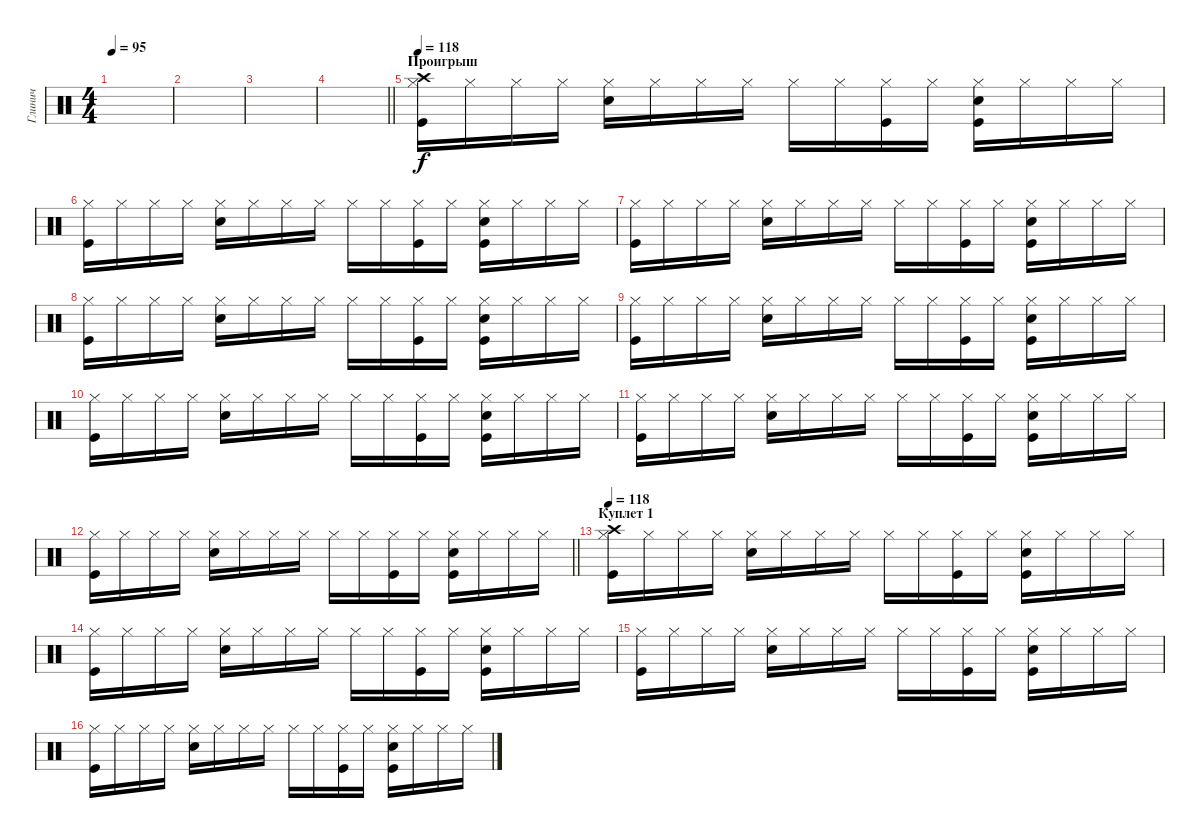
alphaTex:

\track ("Глинич" "Глинич") {instrument percussion}
\staff {score}
\articulation defaults
\ts (4 4)
\tempo 95
\clef neutral
\ks c
|
|
|
\barLineRight lightlight
|
\section ("" "Проигрыш")
\tempo 118
("Hi-Hat (closed)" "Kick (hit)" "Crash high (hit)").16 "Hi-Hat (closed)".16 "Hi-Hat (closed)".16 "Hi-Hat (closed)".16 ("Hi-Hat (closed)" "Snare (hit) 2").16 "Hi-Hat (closed)".16 "Hi-Hat (closed)".16 "Hi-Hat (closed)".16 "Hi-Hat (closed)".16 "Hi-Hat (closed)".16 ("Hi-Hat (closed)" "Kick (hit)").16 "Hi-Hat (closed)".16 ("Hi-Hat (closed)" "Snare (hit) 2" "Kick (hit)").16 "Hi-Hat (closed)".16 "Hi-Hat (closed)".16 "Hi-Hat (closed)".16 |
("Hi-Hat (closed)" "Kick (hit)").16 "Hi-Hat (closed)".16 "Hi-Hat (closed)".16 "Hi-Hat (closed)".16 ("Hi-Hat (closed)" "Snare (hit) 2").16 "Hi-Hat (closed)".16 "Hi-Hat (closed)".16 "Hi-Hat (closed)".16 "Hi-Hat (closed)".16 "Hi-Hat (closed)".16 ("Hi-Hat (closed)" "Kick (hit)").16 "Hi-Hat (closed)".16 ("Hi-Hat (closed)" "Snare (hit) 2" "Kick (hit)").16 "Hi-Hat (closed)".16 "Hi-Hat (closed)".16 "Hi-Hat (closed)".16 |
("Hi-Hat (closed)" "Kick (hit)").16 "Hi-Hat (closed)".16 "Hi-Hat (closed)".16 "Hi-Hat (closed)".16 ("Hi-Hat (closed)" "Snare (hit) 2").16 "Hi-Hat (closed)".16 "Hi-Hat (closed)".16 "Hi-Hat (closed)".16 "Hi-Hat (closed)".16 "Hi-Hat (closed)".16 ("Hi-Hat (closed)" "Kick (hit)").16 "Hi-Hat (closed)".16 ("Hi-Hat (closed)" "Snare (hit) 2" "Kick (hit)").16 "Hi-Hat (closed)".16 "Hi-Hat (closed)".16 "Hi-Hat (closed)".16 |
("Hi-Hat (closed)" "Kick (hit)").16 "Hi-Hat (closed)".16 "Hi-Hat (closed)".16 "Hi-Hat (closed)".16 ("Hi-Hat (closed)" "Snare (hit) 2").16 "Hi-Hat (closed)".16 "Hi-Hat (closed)".16 "Hi-Hat (closed)".16 "Hi-Hat (closed)".16 "Hi-Hat (closed)".16 ("Hi-Hat (closed)" "Kick (hit)").16 "Hi-Hat (closed)".16 ("Hi-Hat (closed)" "Snare (hit) 2" "Kick (hit)").16 "Hi-Hat (closed)".16 "Hi-Hat (closed)".16 "Hi-Hat (closed)".16 |
("Hi-Hat (closed)" "Kick (hit)").16 "Hi-Hat (closed)".16 "Hi-Hat (closed)".16 "Hi-Hat (closed)".16 ("Hi-Hat (closed)" "Snare (hit) 2").16 "Hi-Hat (closed)".16 "Hi-Hat (closed)".16 "Hi-Hat (closed)".16 "Hi-Hat (closed)".16 "Hi-Hat (closed)".16 ("Hi-Hat (closed)" "Kick (hit)").16 "Hi-Hat (closed)".16 ("Hi-Hat (closed)" "Snare (hit) 2" "Kick (hit)").16 "Hi-Hat (closed)".16 "Hi-Hat (closed)".16 "Hi-Hat (closed)".16 |
("Hi-Hat (closed)" "Kick (hit)").16 "Hi-Hat (closed)".16 "Hi-Hat (closed)".16 "Hi-Hat (closed)".16 ("Hi-Hat (closed)" "Snare (hit) 2").16 "Hi-Hat (closed)".16 "Hi-Hat (closed)".16 "Hi-Hat (closed)".16 "Hi-Hat (closed)".16 "Hi-Hat (closed)".16 ("Hi-Hat (closed)" "Kick (hit)").16 "Hi-Hat (closed)".16 ("Hi-Hat (closed)" "Snare (hit) 2" "Kick (hit)").16 "Hi-Hat (closed)".16 "Hi-Hat (closed)".16 "Hi-Hat (closed)".16 |
("Hi-Hat (closed)" "Kick (hit)").16 "Hi-Hat (closed)".16 "Hi-Hat (closed)".16 "Hi-Hat (closed)".16 ("Hi-Hat (closed)" "Snare (hit) 2").16 "Hi-Hat (closed)".16 "Hi-Hat (closed)".16 "Hi-Hat (closed)".16 "Hi-Hat (closed)".16 "Hi-Hat (closed)".16 ("Hi-Hat (closed)" "Kick (hit)").16 "Hi-Hat (closed)".16 ("Hi-Hat (closed)" "Snare (hit) 2" "Kick (hit)").16 "Hi-Hat (closed)".16 "Hi-Hat (closed)".16 "Hi-Hat (closed)".16 |
\barLineRight lightlight
("Hi-Hat (closed)" "Kick (hit)").16 "Hi-Hat (closed)".16 "Hi-Hat (closed)".16 "Hi-Hat (closed)".16 ("Hi-Hat (closed)" "Snare (hit) 2").16 "Hi-Hat (closed)".16 "Hi-Hat (closed)".16 "Hi-Hat (closed)".16 "Hi-Hat (closed)".16 "Hi-Hat (closed)".16 ("Hi-Hat (closed)" "Kick (hit)").16 "Hi-Hat (closed)".16 ("Hi-Hat (closed)" "Snare (hit) 2" "Kick (hit)").16 "Hi-Hat (closed)".16 "Hi-Hat (closed)".16 "Hi-Hat (closed)".16 |
\section ("" "Куплет 1")
\tempo 118
("Hi-Hat (closed)" "Kick (hit)" "Crash high (hit)").16 "Hi-Hat (closed)".16 "Hi-Hat (closed)".16 "Hi-Hat (closed)".16 ("Hi-Hat (closed)" "Snare (hit) 2").16 "Hi-Hat (closed)".16 "Hi-Hat (closed)".16 "Hi-Hat (closed)".16 "Hi-Hat (closed)".16 "Hi-Hat (closed)".16 ("Hi-Hat (closed)" "Kick (hit)").16 "Hi-Hat (closed)".16 ("Hi-Hat (closed)" "Snare (hit) 2" "Kick (hit)").16 "Hi-Hat (closed)".16 "Hi-Hat (closed)".16 "Hi-Hat (closed)".16 |
("Hi-Hat (closed)" "Kick (hit)").16 "Hi-Hat (closed)".16 "Hi-Hat (closed)".16 "Hi-Hat (closed)".16 ("Hi-Hat (closed)" "Snare (hit) 2").16 "Hi-Hat (closed)".16 "Hi-Hat (closed)".16 "Hi-Hat (closed)".16 "Hi-Hat (closed)".16 "Hi-Hat (closed)".16 ("Hi-Hat (closed)" "Kick (hit)").16 "Hi-Hat (closed)".16 ("Hi-Hat (closed)" "Snare (hit) 2" "Kick (hit)").16 "Hi-Hat (closed)".16 "Hi-Hat (closed)".16 "Hi-Hat (closed)".16 |
("Hi-Hat (closed)" "Kick (hit)").16 "Hi-Hat (closed)".16 "Hi-Hat (closed)".16 "Hi-Hat (closed)".16 ("Hi-Hat (closed)" "Snare (hit) 2").16 "Hi-Hat (closed)".16 "Hi-Hat (closed)".16 "Hi-Hat (closed)".16 "Hi-Hat (closed)".16 "Hi-Hat (closed)".16 ("Hi-Hat (closed)" "Kick (hit)").16 "Hi-Hat (closed)".16 ("Hi-Hat (closed)" "Snare (hit) 2" "Kick (hit)").16 "Hi-Hat (closed)".16 "Hi-Hat (closed)".16 "Hi-Hat (closed)".16 |
("Hi-Hat (closed)" "Kick (hit)").16 "Hi-Hat (closed)".16 "Hi-Hat (closed)".16 "Hi-Hat (closed)".16 ("Hi-Hat (closed)" "Snare (hit) 2").16 "Hi-Hat (closed)".16 "Hi-Hat (closed)".16 "Hi-Hat (closed)".16 "Hi-Hat (closed)".16 "Hi-Hat (closed)".16 ("Hi-Hat (closed)" "Kick (hit)").16 "Hi-Hat (closed)".16 ("Hi-Hat (closed)" "Snare (hit) 2" "Kick (hit)").16 "Hi-Hat (closed)".16 "Hi-Hat (closed)".16 "Hi-Hat (closed)".16
